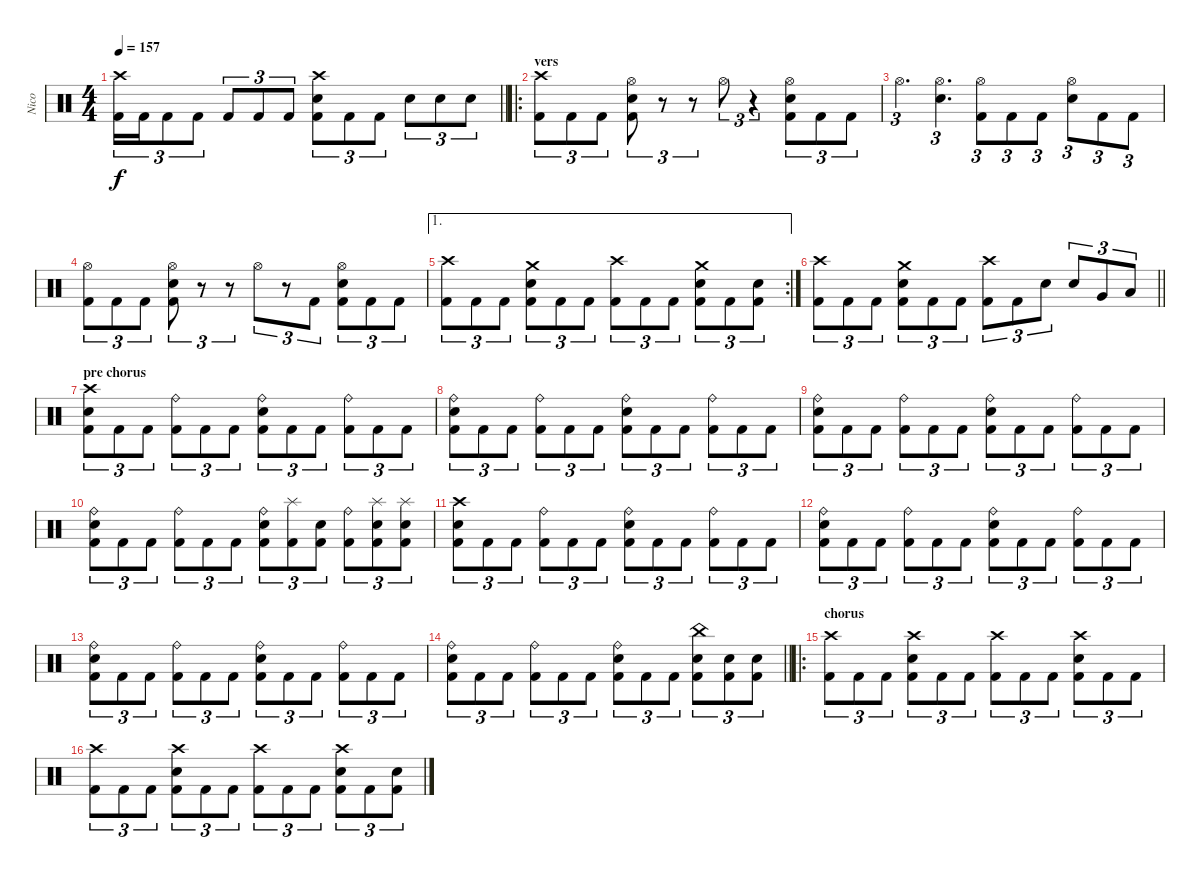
\track ("Nico" "Nico") {instrument percussion}
\staff {score}
\articulation defaults
\ts (4 4)
\tempo 157
\clef neutral
\barLineRight lightlight
\ks c
("Crash high (hit)" "Kick (hit) 2").16{tu (3 2) dy f} "Kick (hit) 2".16{tu (3 2)} "Kick (hit) 2".8{tu (3 2)} "Kick (hit) 2".8{tu (3 2)} "Kick (hit) 2".8{tu (3 2)} "Kick (hit) 2".8{tu (3 2)} "Kick (hit) 2".8{tu (3 2)} ("Crash high (hit)" "Electric Snare (hit)" "Kick (hit) 2").8{tu (3 2)} "Kick (hit) 2".8{tu (3 2)} "Kick (hit) 2".8{tu (3 2)} "Electric Snare (hit)".8{tu (3 2)} "Electric Snare (hit)".8{tu (3 2)} "Electric Snare (hit)".8{tu (3 2)} |
\ro
\section ("" "vers")
("Crash high (hit)" "Kick (hit) 2").8{tu (3 2)} "Kick (hit) 2".8{tu (3 2)} "Kick (hit) 2".8{tu (3 2)} ("Hi-Hat (open)" "Electric Snare (hit)" "Kick (hit) 2").8{tu (3 2)} r.8{tu (3 2)} r.8{tu (3 2)} "Hi-Hat (open)".8{tu (3 2)} r.4{tu (3 2)} ("Hi-Hat (open)" "Electric Snare (hit)" "Kick (hit) 2").8{tu (3 2)} "Kick (hit) 2".8{tu (3 2)} "Kick (hit) 2".8{tu (3 2)} |
"Hi-Hat (open)".4{d tu (3 2)} ("Hi-Hat (open)" "Electric Snare (hit)").4{d tu (3 2)} ("Hi-Hat (open)" "Kick (hit) 2").8{tu (3 2)} "Kick (hit) 2".8{tu (3 2)} "Kick (hit) 2".8{tu (3 2)} ("Hi-Hat (open)" "Electric Snare (hit)").8{tu (3 2)} "Kick (hit) 2".8{tu (3 2)} "Kick (hit) 2".8{tu (3 2)} |
("Hi-Hat (open)" "Kick (hit) 2").8{tu (3 2)} "Kick (hit) 2".8{tu (3 2)} "Kick (hit) 2".8{tu (3 2)} ("Hi-Hat (open)" "Electric Snare (hit)" "Kick (hit) 2").8{tu (3 2)} r.8{tu (3 2)} r.8{tu (3 2)} "Hi-Hat (open)".8{tu (3 2)} r.8{tu (3 2)} "Kick (hit) 2".8{tu (3 2)} ("Hi-Hat (open)" "Electric Snare (hit)" "Kick (hit) 2").8{tu (3 2)} "Kick (hit) 2".8{tu (3 2)} "Kick (hit) 2".8{tu (3 2)} |
\ae 1
\rc 2
("Crash high (hit)" "Kick (hit) 2").8{tu (3 2)} "Kick (hit) 2".8{tu (3 2)} "Kick (hit) 2".8{tu (3 2)} ("Crash medium (hit)" "Electric Snare (hit)" "Kick (hit) 2").8{tu (3 2)} "Kick (hit) 2".8{tu (3 2)} "Kick (hit) 2".8{tu (3 2)} ("Crash high (hit)" "Kick (hit) 2").8{tu (3 2)} "Kick (hit) 2".8{tu (3 2)} "Kick (hit) 2".8{tu (3 2)} ("Crash medium (hit)" "Electric Snare (hit)" "Kick (hit) 2").8{tu (3 2)} "Kick (hit) 2".8{tu (3 2)} ("Electric Snare (hit)" "Kick (hit) 2").8{tu (3 2)} |
\barLineRight lightlight
("Crash high (hit)" "Kick (hit) 2").8{tu (3 2)} "Kick (hit) 2".8{tu (3 2)} "Kick (hit) 2".8{tu (3 2)} ("Crash medium (hit)" "Electric Snare (hit)" "Kick (hit) 2").8{tu (3 2)} "Kick (hit) 2".8{tu (3 2)} "Kick (hit) 2".8{tu (3 2)} ("Crash high (hit)" "Kick (hit) 2").8{tu (3 2)} "Kick (hit) 2".8{tu (3 2)} "Electric Snare (hit)".8{tu (3 2)} "Electric Snare (hit)".8{tu (3 2)} "Very Low Tom (hit)".8{tu (3 2)} "Low Floor Tom (hit)".8{tu (3 2)} |
\section ("" "pre chorus")
("Crash high (hit)" "Electric Snare (hit)" "Kick (hit) 2").8{tu (3 2)} "Kick (hit) 2".8{tu (3 2)} "Kick (hit) 2".8{tu (3 2)} ("Ride (bell)" "Kick (hit) 2").8{tu (3 2)} "Kick (hit) 2".8{tu (3 2)} "Kick (hit) 2".8{tu (3 2)} ("Ride (bell)" "Electric Snare (hit)" "Kick (hit) 2").8{tu (3 2)} "Kick (hit) 2".8{tu (3 2)} "Kick (hit) 2".8{tu (3 2)} ("Ride (bell)" "Kick (hit) 2").8{tu (3 2)} "Kick (hit) 2".8{tu (3 2)} "Kick (hit) 2".8{tu (3 2)} |
("Ride (bell)" "Electric Snare (hit)" "Kick (hit) 2").8{tu (3 2)} "Kick (hit) 2".8{tu (3 2)} "Kick (hit) 2".8{tu (3 2)} ("Ride (bell)" "Kick (hit) 2").8{tu (3 2)} "Kick (hit) 2".8{tu (3 2)} "Kick (hit) 2".8{tu (3 2)} ("Ride (bell)" "Electric Snare (hit)" "Kick (hit) 2").8{tu (3 2)} "Kick (hit) 2".8{tu (3 2)} "Kick (hit) 2".8{tu (3 2)} ("Ride (bell)" "Kick (hit) 2").8{tu (3 2)} "Kick (hit) 2".8{tu (3 2)} "Kick (hit) 2".8{tu (3 2)} |
("Ride (bell)" "Electric Snare (hit)" "Kick (hit) 2").8{tu (3 2)} "Kick (hit) 2".8{tu (3 2)} "Kick (hit) 2".8{tu (3 2)} ("Ride (bell)" "Kick (hit) 2").8{tu (3 2)} "Kick (hit) 2".8{tu (3 2)} "Kick (hit) 2".8{tu (3 2)} ("Ride (bell)" "Electric Snare (hit)" "Kick (hit) 2").8{tu (3 2)} "Kick (hit) 2".8{tu (3 2)} "Kick (hit) 2".8{tu (3 2)} ("Ride (bell)" "Kick (hit) 2").8{tu (3 2)} "Kick (hit) 2".8{tu (3 2)} "Kick (hit) 2".8{tu (3 2)} |
("Ride (bell)" "Electric Snare (hit)" "Kick (hit) 2").8{tu (3 2)} "Kick (hit) 2".8{tu (3 2)} "Kick (hit) 2".8{tu (3 2)} ("Ride (bell)" "Kick (hit) 2").8{tu (3 2)} "Kick (hit) 2".8{tu (3 2)} "Kick (hit) 2".8{tu (3 2)} ("Ride (bell)" "Electric Snare (hit)" "Kick (hit) 2").8{tu (3 2)} ("Splash (hit)" "Kick (hit) 2").8{tu (3 2)} ("Electric Snare (hit)" "Kick (hit) 2").8{tu (3 2)} ("Ride (bell)" "Kick (hit) 2").8{tu (3 2)} ("Splash (hit)" "Electric Snare (hit)" "Kick (hit) 2").8{tu (3 2)} ("Splash (hit)" "Electric Snare (hit)" "Kick (hit) 2").8{tu (3 2)} |
("Crash high (hit)" "Electric Snare (hit)" "Kick (hit) 2").8{tu (3 2)} "Kick (hit) 2".8{tu (3 2)} "Kick (hit) 2".8{tu (3 2)} ("Ride (bell)" "Kick (hit) 2").8{tu (3 2)} "Kick (hit) 2".8{tu (3 2)} "Kick (hit) 2".8{tu (3 2)} ("Ride (bell)" "Electric Snare (hit)" "Kick (hit) 2").8{tu (3 2)} "Kick (hit) 2".8{tu (3 2)} "Kick (hit) 2".8{tu (3 2)} ("Ride (bell)" "Kick (hit) 2").8{tu (3 2)} "Kick (hit) 2".8{tu (3 2)} "Kick (hit) 2".8{tu (3 2)} |
("Ride (bell)" "Electric Snare (hit)" "Kick (hit) 2").8{tu (3 2)} "Kick (hit) 2".8{tu (3 2)} "Kick (hit) 2".8{tu (3 2)} ("Ride (bell)" "Kick (hit) 2").8{tu (3 2)} "Kick (hit) 2".8{tu (3 2)} "Kick (hit) 2".8{tu (3 2)} ("Ride (bell)" "Electric Snare (hit)" "Kick (hit) 2").8{tu (3 2)} "Kick (hit) 2".8{tu (3 2)} "Kick (hit) 2".8{tu (3 2)} ("Ride (bell)" "Kick (hit) 2").8{tu (3 2)} "Kick (hit) 2".8{tu (3 2)} "Kick (hit) 2".8{tu (3 2)} |
("Ride (bell)" "Electric Snare (hit)" "Kick (hit) 2").8{tu (3 2)} "Kick (hit) 2".8{tu (3 2)} "Kick (hit) 2".8{tu (3 2)} ("Ride (bell)" "Kick (hit) 2").8{tu (3 2)} "Kick (hit) 2".8{tu (3 2)} "Kick (hit) 2".8{tu (3 2)} ("Ride (bell)" "Electric Snare (hit)" "Kick (hit) 2").8{tu (3 2)} "Kick (hit) 2".8{tu (3 2)} "Kick (hit) 2".8{tu (3 2)} ("Ride (bell)" "Kick (hit) 2").8{tu (3 2)} "Kick (hit) 2".8{tu (3 2)} "Kick (hit) 2".8{tu (3 2)} |
\barLineRight lightlight
("Ride (bell)" "Electric Snare (hit)" "Kick (hit) 2").8{tu (3 2)} "Kick (hit) 2".8{tu (3 2)} "Kick (hit) 2".8{tu (3 2)} ("Ride (bell)" "Kick (hit) 2").8{tu (3 2)} "Kick (hit) 2".8{tu (3 2)} "Kick (hit) 2".8{tu (3 2)} ("Ride (bell)" "Electric Snare (hit)" "Kick (hit) 2").8{tu (3 2)} "Kick (hit) 2".8{tu (3 2)} "Kick (hit) 2".8{tu (3 2)} ("China (hit)" "Electric Snare (hit)" "Kick (hit) 2").8{tu (3 2)} ("Electric Snare (hit)" "Kick (hit) 2").8{tu (3 2)} ("Electric Snare (hit)" "Kick (hit) 2").8{tu (3 2)} |
\ro
\section ("" "chorus")
("Crash high (hit)" "Kick (hit) 2").8{tu (3 2)} "Kick (hit) 2".8{tu (3 2)} "Kick (hit) 2".8{tu (3 2)} ("Crash high (hit)" "Electric Snare (hit)" "Kick (hit) 2").8{tu (3 2)} "Kick (hit) 2".8{tu (3 2)} "Kick (hit) 2".8{tu (3 2)} ("Crash high (hit)" "Kick (hit) 2").8{tu (3 2)} "Kick (hit) 2".8{tu (3 2)} "Kick (hit) 2".8{tu (3 2)} ("Crash high (hit)" "Electric Snare (hit)" "Kick (hit) 2").8{tu (3 2)} "Kick (hit) 2".8{tu (3 2)} "Kick (hit) 2".8{tu (3 2)} |
("Crash high (hit)" "Kick (hit) 2").8{tu (3 2)} "Kick (hit) 2".8{tu (3 2)} "Kick (hit) 2".8{tu (3 2)} ("Crash high (hit)" "Electric Snare (hit)" "Kick (hit) 2").8{tu (3 2)} "Kick (hit) 2".8{tu (3 2)} "Kick (hit) 2".8{tu (3 2)} ("Crash high (hit)" "Kick (hit) 2").8{tu (3 2)} "Kick (hit) 2".8{tu (3 2)} "Kick (hit) 2".8{tu (3 2)} ("Crash high (hit)" "Electric Snare (hit)" "Kick (hit) 2").8{tu (3 2)} "Kick (hit) 2".8{tu (3 2)} ("Electric Snare (hit)" "Kick (hit) 2").8{tu (3 2)}
